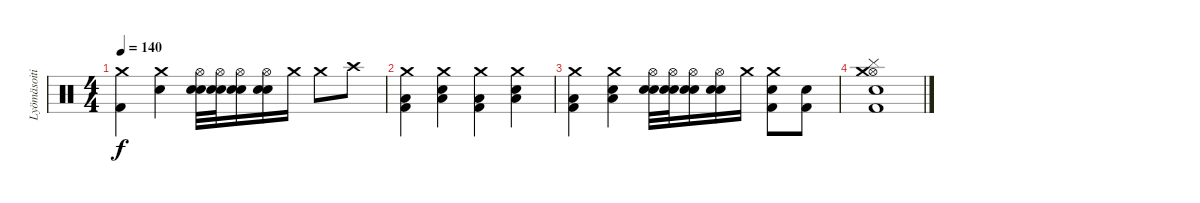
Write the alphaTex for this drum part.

\track ("Lyömäsoitin" "Lyömäsoiti") {instrument percussion}
\staff {score}
\articulation defaults
\ts (4 4)
\tempo 140
\clef neutral
\ks c
("Crash medium (hit)" "Kick (hit) 2").4{dy f} ("Crash medium (hit)" "Electric Snare (hit)").4 ("Hi-Hat (open)" "Snare (hit) 2" "Electric Snare (hit)").32 ("Hi-Hat (open)" "Snare (hit) 2" "Electric Snare (hit)").32 ("Hi-Hat (open)" "Snare (hit) 2" "Electric Snare (hit)").16 ("Hi-Hat (open)" "Snare (hit) 2" "Electric Snare (hit)").16 "Crash medium (hit)".16 "Crash medium (hit)".8 "Crash high (hit)".8 |
("Crash medium (hit)" "Low Floor Tom (hit)" "Kick (hit) 2").4 ("Crash medium (hit)" "Low Floor Tom (hit)" "Snare (hit) 2").4 ("Crash medium (hit)" "Low Floor Tom (hit)" "Kick (hit) 2").4 ("Crash medium (hit)" "Low Floor Tom (hit)" "Snare (hit) 2").4 |
("Crash medium (hit)" "Low Floor Tom (hit)" "Kick (hit) 2").4 ("Crash medium (hit)" "Low Floor Tom (hit)" "Snare (hit) 2").4 ("Hi-Hat (open)" "Snare (hit) 2" "Electric Snare (hit)").32 ("Hi-Hat (open)" "Snare (hit) 2" "Electric Snare (hit)").32 ("Hi-Hat (open)" "Snare (hit) 2" "Electric Snare (hit)").16 ("Hi-Hat (open)" "Snare (hit) 2" "Electric Snare (hit)").16 "Crash medium (hit)".16 ("Crash medium (hit)" "Electric Snare (hit)" "Kick (hit) 2").8 ("Electric Snare (hit)" "Kick (hit) 2").8 |
("Snare (hit) 2" "Kick (hit) 2" "Hi-Hat (open)" "Crash medium (hit)" "Cymbal (hit)").1
